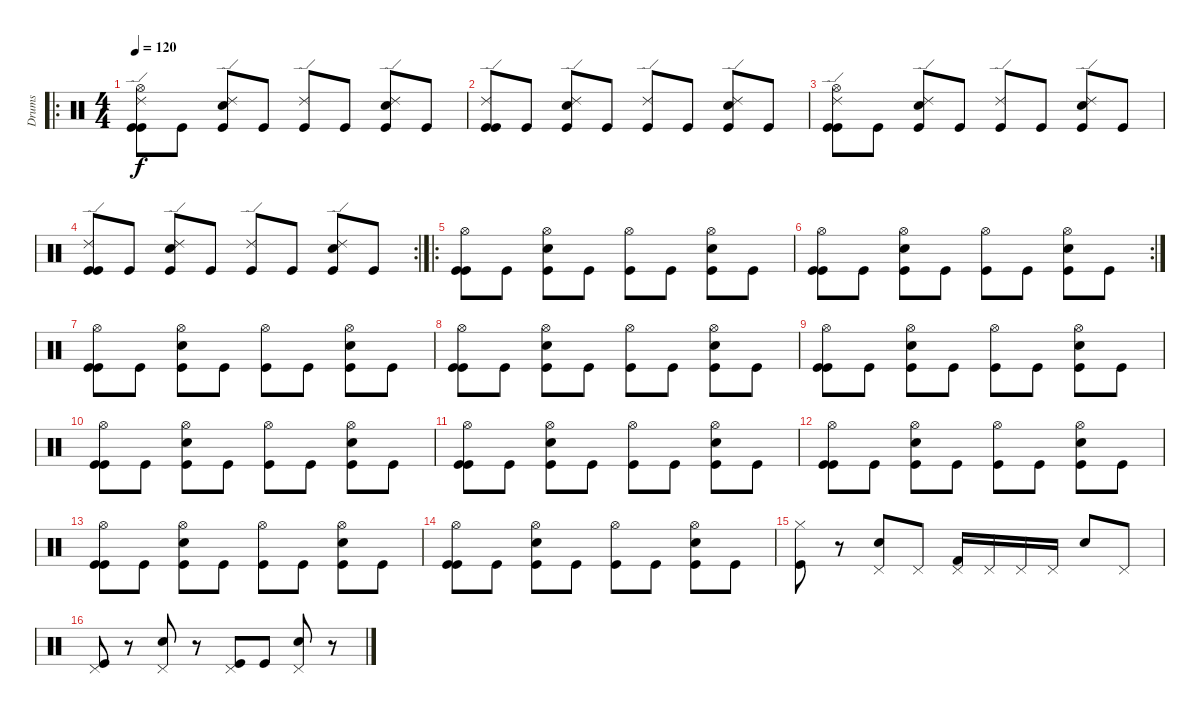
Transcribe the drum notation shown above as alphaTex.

\track ("Drums" "Drums") {instrument percussion}
\staff {score}
\articulation defaults
\ro
\ts (4 4)
\tempo 120
\clef neutral
\ks c
("Hi-Hat (open)" "Ride (edge) 2" "Kick (hit)" "Kick (hit)").8{dy f} "Kick (hit)".8 ("Ride (edge) 2" "Snare (hit) 2" "Kick (hit)").8 "Kick (hit)".8 ("Ride (edge) 2" "Kick (hit)").8 "Kick (hit)".8 ("Ride (edge) 2" "Snare (hit) 2" "Kick (hit)").8 "Kick (hit)".8 |
("Ride (edge) 2" "Kick (hit)" "Kick (hit)").8 "Kick (hit)".8 ("Ride (edge) 2" "Snare (hit) 2" "Kick (hit)").8 "Kick (hit)".8 ("Ride (edge) 2" "Kick (hit)").8 "Kick (hit)".8 ("Ride (edge) 2" "Snare (hit) 2" "Kick (hit)").8 "Kick (hit)".8 |
("Hi-Hat (open)" "Ride (edge) 2" "Kick (hit)" "Kick (hit)").8 "Kick (hit)".8 ("Ride (edge) 2" "Snare (hit) 2" "Kick (hit)").8 "Kick (hit)".8 ("Ride (edge) 2" "Kick (hit)").8 "Kick (hit)".8 ("Ride (edge) 2" "Snare (hit) 2" "Kick (hit)").8 "Kick (hit)".8 |
\rc 2
("Ride (edge) 2" "Kick (hit)" "Kick (hit)").8 "Kick (hit)".8 ("Ride (edge) 2" "Snare (hit) 2" "Kick (hit)").8 "Kick (hit)".8 ("Ride (edge) 2" "Kick (hit)").8 "Kick (hit)".8 ("Ride (edge) 2" "Snare (hit) 2" "Kick (hit)").8 "Kick (hit)".8 |
\ro
("Hi-Hat (open)" "Kick (hit)" "Kick (hit)").8 "Kick (hit)".8 ("Hi-Hat (open)" "Snare (hit) 2" "Kick (hit)").8 "Kick (hit)".8 ("Hi-Hat (open)" "Kick (hit)").8 "Kick (hit)".8 ("Hi-Hat (open)" "Snare (hit) 2" "Kick (hit)").8 "Kick (hit)".8 |
\rc 2
("Hi-Hat (open)" "Kick (hit)" "Kick (hit)").8 "Kick (hit)".8 ("Hi-Hat (open)" "Snare (hit) 2" "Kick (hit)").8 "Kick (hit)".8 ("Hi-Hat (open)" "Kick (hit)").8 "Kick (hit)".8 ("Hi-Hat (open)" "Snare (hit) 2" "Kick (hit)").8 "Kick (hit)".8 |
("Hi-Hat (open)" "Kick (hit)" "Kick (hit)").8 "Kick (hit)".8 ("Hi-Hat (open)" "Snare (hit) 2" "Kick (hit)").8 "Kick (hit)".8 ("Hi-Hat (open)" "Kick (hit)").8 "Kick (hit)".8 ("Hi-Hat (open)" "Snare (hit) 2" "Kick (hit)").8 "Kick (hit)".8 |
("Hi-Hat (open)" "Kick (hit)" "Kick (hit)").8 "Kick (hit)".8 ("Hi-Hat (open)" "Snare (hit) 2" "Kick (hit)").8 "Kick (hit)".8 ("Hi-Hat (open)" "Kick (hit)").8 "Kick (hit)".8 ("Hi-Hat (open)" "Snare (hit) 2" "Kick (hit)").8 "Kick (hit)".8 |
("Hi-Hat (open)" "Kick (hit)" "Kick (hit)").8 "Kick (hit)".8 ("Hi-Hat (open)" "Snare (hit) 2" "Kick (hit)").8 "Kick (hit)".8 ("Hi-Hat (open)" "Kick (hit)").8 "Kick (hit)".8 ("Hi-Hat (open)" "Snare (hit) 2" "Kick (hit)").8 "Kick (hit)".8 |
("Hi-Hat (open)" "Kick (hit)" "Kick (hit)").8 "Kick (hit)".8 ("Hi-Hat (open)" "Snare (hit) 2" "Kick (hit)").8 "Kick (hit)".8 ("Hi-Hat (open)" "Kick (hit)").8 "Kick (hit)".8 ("Hi-Hat (open)" "Snare (hit) 2" "Kick (hit)").8 "Kick (hit)".8 |
("Hi-Hat (open)" "Kick (hit)" "Kick (hit)").8 "Kick (hit)".8 ("Hi-Hat (open)" "Snare (hit) 2" "Kick (hit)").8 "Kick (hit)".8 ("Hi-Hat (open)" "Kick (hit)").8 "Kick (hit)".8 ("Hi-Hat (open)" "Snare (hit) 2" "Kick (hit)").8 "Kick (hit)".8 |
("Hi-Hat (open)" "Kick (hit)" "Kick (hit)").8 "Kick (hit)".8 ("Hi-Hat (open)" "Snare (hit) 2" "Kick (hit)").8 "Kick (hit)".8 ("Hi-Hat (open)" "Kick (hit)").8 "Kick (hit)".8 ("Hi-Hat (open)" "Snare (hit) 2" "Kick (hit)").8 "Kick (hit)".8 |
("Hi-Hat (open)" "Kick (hit)" "Kick (hit)").8 "Kick (hit)".8 ("Hi-Hat (open)" "Snare (hit) 2" "Kick (hit)").8 "Kick (hit)".8 ("Hi-Hat (open)" "Kick (hit)").8 "Kick (hit)".8 ("Hi-Hat (open)" "Snare (hit) 2" "Kick (hit)").8 "Kick (hit)".8 |
("Hi-Hat (open)" "Kick (hit)" "Kick (hit)").8 "Kick (hit)".8 ("Hi-Hat (open)" "Snare (hit) 2" "Kick (hit)").8 "Kick (hit)".8 ("Hi-Hat (open)" "Kick (hit)").8 "Kick (hit)".8 ("Hi-Hat (open)" "Snare (hit) 2" "Kick (hit)").8 "Kick (hit)".8 |
("Hi-Hat (closed)" "Kick (hit)").8 r.8 ("Pedal Hi-Hat (hit)" "Snare (hit) 2").8 "Pedal Hi-Hat (hit)".8 ("Pedal Hi-Hat (hit)" "Kick (hit) 2").16 "Pedal Hi-Hat (hit)".16 "Pedal Hi-Hat (hit)".16 "Pedal Hi-Hat (hit)".16 "Snare (hit) 2".8 "Pedal Hi-Hat (hit)".8 |
("Pedal Hi-Hat (hit)" "Kick (hit)").8 r.8 ("Pedal Hi-Hat (hit)" "Snare (hit) 2").8 r.8 ("Pedal Hi-Hat (hit)" "Kick (hit)").8 "Kick (hit)".8 ("Pedal Hi-Hat (hit)" "Snare (hit) 2").8 r.8
